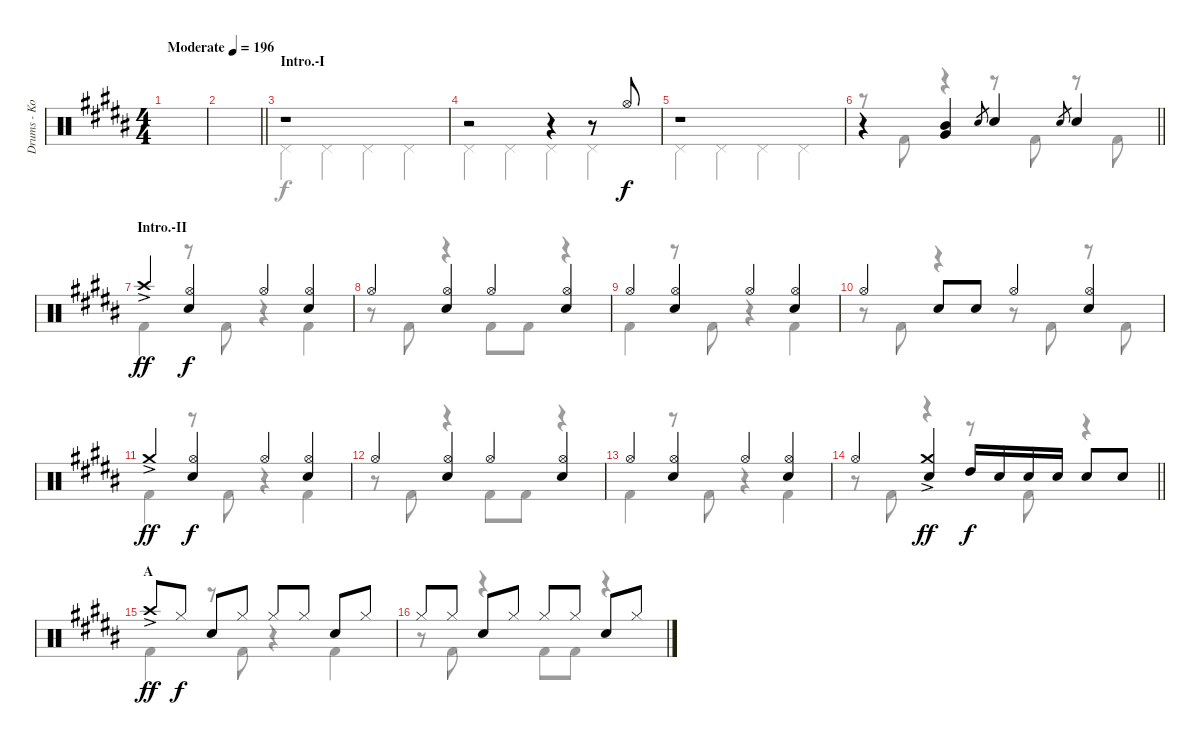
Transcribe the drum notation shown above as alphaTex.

\track ("Drums - Koji Hasegawa" "Drums - Ko") {instrument percussion}
\staff {score}
\articulation defaults
\voice
\ts (4 4)
\tempo (196 "Moderate")
\clef neutral
\ks b
|
\barLineRight lightlight
|
\section ("" "Intro.-I")
r.1 |
r.2 r.4 r.8 "Hi-Hat (open)".8 |
r.1 |
\barLineRight lightlight
r.4 ("Mid Tom (hit)" "Very Low Tom (hit)").4 "Snare (hit) 2".8{gr} "Snare (hit) 2".4 "Snare (hit) 2".8{gr} "Snare (hit) 2".4 |
\section ("" "Intro.-II")
"Crash high (hit)"{ac}.4{dy ff} ("Hi-Hat (open)" "Snare (hit) 2").4{dy f} "Hi-Hat (open)".4 ("Hi-Hat (open)" "Snare (hit) 2").4 |
"Hi-Hat (open)".4 ("Hi-Hat (open)" "Snare (hit) 2").4 "Hi-Hat (open)".4 ("Hi-Hat (open)" "Snare (hit) 2").4 |
"Hi-Hat (open)".4 ("Hi-Hat (open)" "Snare (hit) 2").4 "Hi-Hat (open)".4 ("Hi-Hat (open)" "Snare (hit) 2").4 |
"Hi-Hat (open)".4 "Snare (hit) 2".8 "Snare (hit) 2".8 "Hi-Hat (open)".4 ("Hi-Hat (open)" "Snare (hit) 2").4 |
"Crash medium (hit)"{ac}.4{dy ff} ("Hi-Hat (open)" "Snare (hit) 2").4{dy f} "Hi-Hat (open)".4 ("Hi-Hat (open)" "Snare (hit) 2").4 |
"Hi-Hat (open)".4 ("Hi-Hat (open)" "Snare (hit) 2").4 "Hi-Hat (open)".4 ("Hi-Hat (open)" "Snare (hit) 2").4 |
"Hi-Hat (open)".4 ("Hi-Hat (open)" "Snare (hit) 2").4 "Hi-Hat (open)".4 ("Hi-Hat (open)" "Snare (hit) 2").4 |
\barLineRight lightlight "Hi-Hat (open)".4
("Crash medium (hit)"{ac} "Snare (hit) 2").4{dy ff} "High Tom (hit)".16{dy f} "Snare (hit) 2".16 "Snare (hit) 2".16 "Snare (hit) 2".16 "Snare (hit) 2".8 "Snare (hit) 2".8 |
\section ("" "A")
"Crash high (hit)"{ac}.8{dy ff} "Hi-Hat (closed)".8{dy f} "Snare (hit) 2".8 "Hi-Hat (closed)".8 "Hi-Hat (closed)".8 "Hi-Hat (closed)".8 "Snare (hit) 2".8 "Hi-Hat (closed)".8 |
"Hi-Hat (closed)".8 "Hi-Hat (closed)".8 "Snare (hit) 2".8 "Hi-Hat (closed)".8 "Hi-Hat (closed)".8 "Hi-Hat (closed)".8 "Snare (hit) 2".8 "Hi-Hat (closed)".8
\voice
\clef neutral
\ottava regular
\simile none
\ks b
|
\barLineRight lightlight
|
"Pedal Hi-Hat (hit)".4 "Pedal Hi-Hat (hit)".4 "Pedal Hi-Hat (hit)".4 "Pedal Hi-Hat (hit)".4 |
"Pedal Hi-Hat (hit)".4 "Pedal Hi-Hat (hit)".4 "Pedal Hi-Hat (hit)".4 "Pedal Hi-Hat (hit)".4 |
"Pedal Hi-Hat (hit)".4 "Pedal Hi-Hat (hit)".4 "Pedal Hi-Hat (hit)".4 "Pedal Hi-Hat (hit)".4 |
\barLineRight lightlight
r.8 "Kick (hit) 2".8 r.4 r.8 "Kick (hit) 2".8 r.8 "Kick (hit) 2".8 |
"Kick (hit) 2".4 r.8 "Kick (hit) 2".8 r.4 "Kick (hit) 2".4 |
r.8 "Kick (hit) 2".8 r.4 "Kick (hit) 2".8 "Kick (hit) 2".8 r.4 |
"Kick (hit) 2".4 r.8 "Kick (hit) 2".8 r.4 "Kick (hit) 2".4 |
r.8 "Kick (hit) 2".8 r.4 r.8 "Kick (hit) 2".8 r.8 "Kick (hit) 2".8 |
"Kick (hit) 2".4 r.8 "Kick (hit) 2".8 r.4 "Kick (hit) 2".4 |
r.8 "Kick (hit) 2".8 r.4 "Kick (hit) 2".8 "Kick (hit) 2".8 r.4 |
"Kick (hit) 2".4 r.8 "Kick (hit) 2".8 r.4 "Kick (hit) 2".4 |
\barLineRight lightlight
r.8 "Kick (hit) 2".8 r.4 r.8 "Kick (hit) 2".8 r.4 |
"Kick (hit) 2".4 r.8 "Kick (hit) 2".8 r.4 "Kick (hit) 2".4 |
r.8 "Kick (hit) 2".8 r.4 "Kick (hit) 2".8 "Kick (hit) 2".8 r.4
